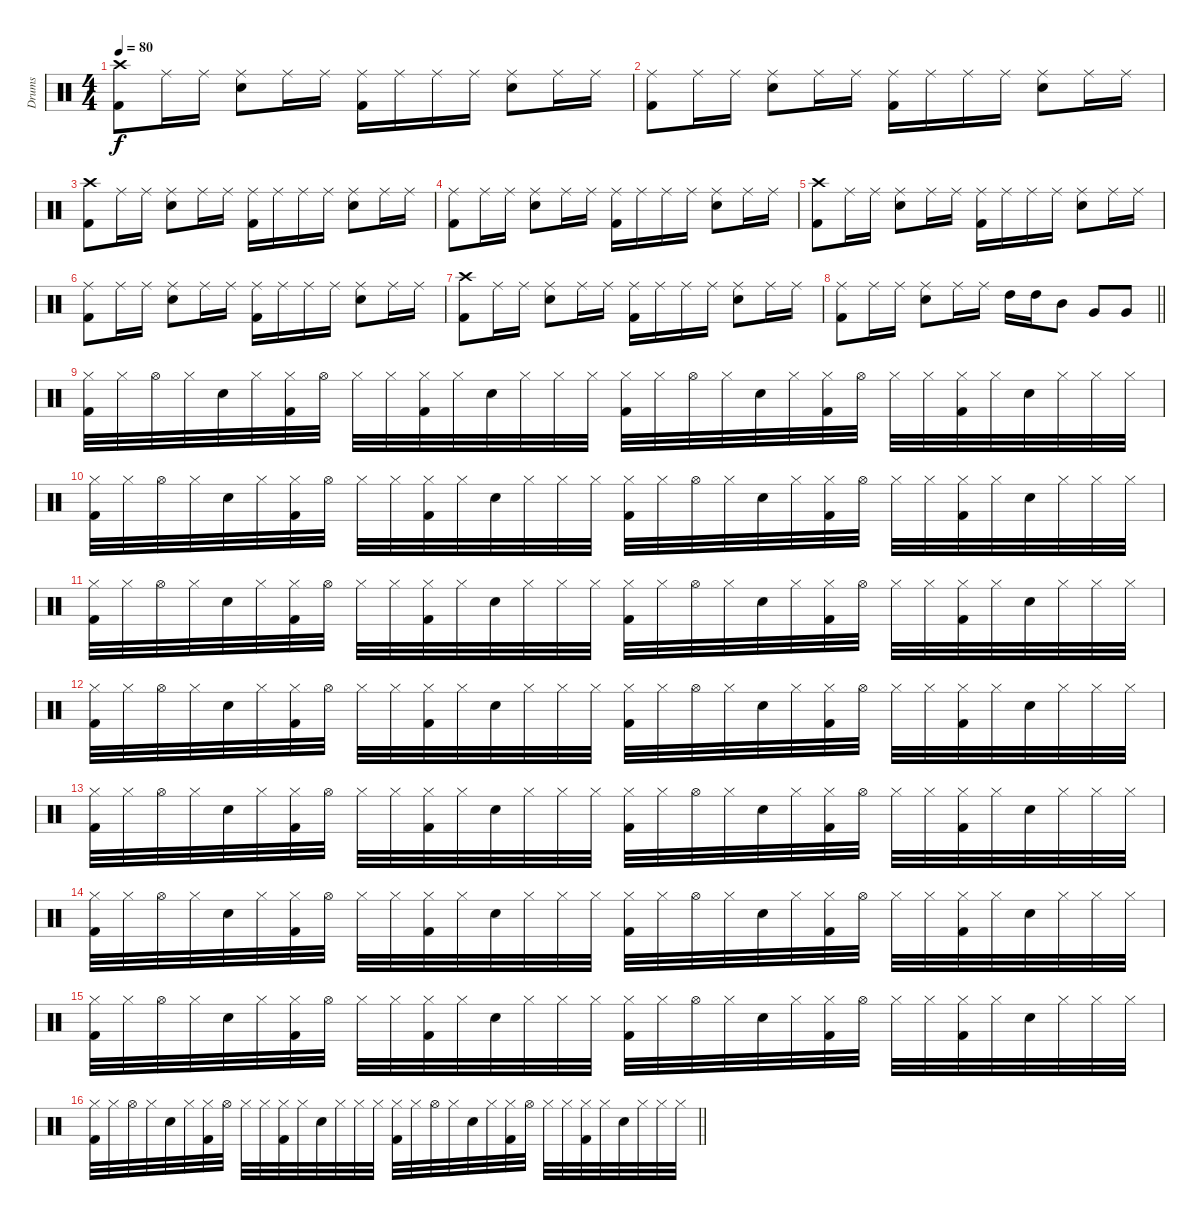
\track ("Drums" "Drums") {instrument percussion}
\staff {score}
\articulation defaults
\ts (4 4)
\section ("" "")
\tempo 80
\clef neutral
\ks c
("Kick (hit) 2" "Crash high (hit)").8{dy f} "Ride (middle)".16 "Ride (middle)".16 ("Electric Snare (hit)" "Ride (middle)").8 "Ride (middle)".16 "Ride (middle)".16 ("Kick (hit) 2" "Ride (middle)").16 "Ride (middle)".16 "Ride (middle)".16 "Ride (middle)".16 ("Electric Snare (hit)" "Ride (middle)").8 "Ride (middle)".16 "Ride (middle)".16 |
("Kick (hit) 2" "Ride (middle)").8 "Ride (middle)".16 "Ride (middle)".16 ("Electric Snare (hit)" "Ride (middle)").8 "Ride (middle)".16 "Ride (middle)".16 ("Kick (hit) 2" "Ride (middle)").16 "Ride (middle)".16 "Ride (middle)".16 "Ride (middle)".16 ("Electric Snare (hit)" "Ride (middle)").8 "Ride (middle)".16 "Ride (middle)".16 |
("Kick (hit) 2" "Crash high (hit)").8 "Ride (middle)".16 "Ride (middle)".16 ("Electric Snare (hit)" "Ride (middle)").8 "Ride (middle)".16 "Ride (middle)".16 ("Kick (hit) 2" "Ride (middle)").16 "Ride (middle)".16 "Ride (middle)".16 "Ride (middle)".16 ("Electric Snare (hit)" "Ride (middle)").8 "Ride (middle)".16 "Ride (middle)".16 |
("Kick (hit) 2" "Ride (middle)").8 "Ride (middle)".16 "Ride (middle)".16 ("Electric Snare (hit)" "Ride (middle)").8 "Ride (middle)".16 "Ride (middle)".16 ("Kick (hit) 2" "Ride (middle)").16 "Ride (middle)".16 "Ride (middle)".16 "Ride (middle)".16 ("Electric Snare (hit)" "Ride (middle)").8 "Ride (middle)".16 "Ride (middle)".16 |
("Kick (hit) 2" "Crash high (hit)").8 "Ride (middle)".16 "Ride (middle)".16 ("Electric Snare (hit)" "Ride (middle)").8 "Ride (middle)".16 "Ride (middle)".16 ("Kick (hit) 2" "Ride (middle)").16 "Ride (middle)".16 "Ride (middle)".16 "Ride (middle)".16 ("Electric Snare (hit)" "Ride (middle)").8 "Ride (middle)".16 "Ride (middle)".16 |
("Kick (hit) 2" "Ride (middle)").8 "Ride (middle)".16 "Ride (middle)".16 ("Electric Snare (hit)" "Ride (middle)").8 "Ride (middle)".16 "Ride (middle)".16 ("Kick (hit) 2" "Ride (middle)").16 "Ride (middle)".16 "Ride (middle)".16 "Ride (middle)".16 ("Electric Snare (hit)" "Ride (middle)").8 "Ride (middle)".16 "Ride (middle)".16 |
("Kick (hit) 2" "Crash high (hit)").8 "Ride (middle)".16 "Ride (middle)".16 ("Electric Snare (hit)" "Ride (middle)").8 "Ride (middle)".16 "Ride (middle)".16 ("Kick (hit) 2" "Ride (middle)").16 "Ride (middle)".16 "Ride (middle)".16 "Ride (middle)".16 ("Electric Snare (hit)" "Ride (middle)").8 "Ride (middle)".16 "Ride (middle)".16 |
\barLineRight lightlight
("Kick (hit) 2" "Ride (middle)").8 "Ride (middle)".16 "Ride (middle)".16 ("Electric Snare (hit)" "Ride (middle)").8 "Ride (middle)".16 "Ride (middle)".16 "High Tom (hit)".16 "High Tom (hit)".16 "Mid Tom (hit)".8 "Very Low Tom (hit)".8 "Very Low Tom (hit)".8 |
\section ("" "")
("Kick (hit) 2" "Hi-Hat (closed)").32 "Hi-Hat (closed)".32 "Hi-Hat (open)".32 "Hi-Hat (closed)".32 "Electric Snare (hit)".32 "Hi-Hat (closed)".32 ("Kick (hit) 2" "Hi-Hat (closed)").32 "Hi-Hat (open)".32 "Hi-Hat (closed)".32 "Hi-Hat (closed)".32 ("Kick (hit) 2" "Hi-Hat (closed)").32 "Hi-Hat (closed)".32 "Electric Snare (hit)".32 "Hi-Hat (closed)".32 "Hi-Hat (closed)".32 "Hi-Hat (closed)".32 ("Kick (hit) 2" "Hi-Hat (closed)").32 "Hi-Hat (closed)".32 "Hi-Hat (open)".32 "Hi-Hat (closed)".32 "Electric Snare (hit)".32 "Hi-Hat (closed)".32 ("Kick (hit) 2" "Hi-Hat (closed)").32 "Hi-Hat (open)".32 "Hi-Hat (closed)".32 "Hi-Hat (closed)".32 ("Kick (hit) 2" "Hi-Hat (closed)").32 "Hi-Hat (closed)".32 "Electric Snare (hit)".32 "Hi-Hat (closed)".32 "Hi-Hat (closed)".32 "Hi-Hat (closed)".32 |
("Kick (hit) 2" "Hi-Hat (closed)").32 "Hi-Hat (closed)".32 "Hi-Hat (open)".32 "Hi-Hat (closed)".32 "Electric Snare (hit)".32 "Hi-Hat (closed)".32 ("Kick (hit) 2" "Hi-Hat (closed)").32 "Hi-Hat (open)".32 "Hi-Hat (closed)".32 "Hi-Hat (closed)".32 ("Kick (hit) 2" "Hi-Hat (closed)").32 "Hi-Hat (closed)".32 "Electric Snare (hit)".32 "Hi-Hat (closed)".32 "Hi-Hat (closed)".32 "Hi-Hat (closed)".32 ("Kick (hit) 2" "Hi-Hat (closed)").32 "Hi-Hat (closed)".32 "Hi-Hat (open)".32 "Hi-Hat (closed)".32 "Electric Snare (hit)".32 "Hi-Hat (closed)".32 ("Kick (hit) 2" "Hi-Hat (closed)").32 "Hi-Hat (open)".32 "Hi-Hat (closed)".32 "Hi-Hat (closed)".32 ("Kick (hit) 2" "Hi-Hat (closed)").32 "Hi-Hat (closed)".32 "Electric Snare (hit)".32 "Hi-Hat (closed)".32 "Hi-Hat (closed)".32 "Hi-Hat (closed)".32 |
("Kick (hit) 2" "Hi-Hat (closed)").32 "Hi-Hat (closed)".32 "Hi-Hat (open)".32 "Hi-Hat (closed)".32 "Electric Snare (hit)".32 "Hi-Hat (closed)".32 ("Kick (hit) 2" "Hi-Hat (closed)").32 "Hi-Hat (open)".32 "Hi-Hat (closed)".32 "Hi-Hat (closed)".32 ("Kick (hit) 2" "Hi-Hat (closed)").32 "Hi-Hat (closed)".32 "Electric Snare (hit)".32 "Hi-Hat (closed)".32 "Hi-Hat (closed)".32 "Hi-Hat (closed)".32 ("Kick (hit) 2" "Hi-Hat (closed)").32 "Hi-Hat (closed)".32 "Hi-Hat (open)".32 "Hi-Hat (closed)".32 "Electric Snare (hit)".32 "Hi-Hat (closed)".32 ("Kick (hit) 2" "Hi-Hat (closed)").32 "Hi-Hat (open)".32 "Hi-Hat (closed)".32 "Hi-Hat (closed)".32 ("Kick (hit) 2" "Hi-Hat (closed)").32 "Hi-Hat (closed)".32 "Electric Snare (hit)".32 "Hi-Hat (closed)".32 "Hi-Hat (closed)".32 "Hi-Hat (closed)".32 |
("Kick (hit) 2" "Hi-Hat (closed)").32 "Hi-Hat (closed)".32 "Hi-Hat (open)".32 "Hi-Hat (closed)".32 "Electric Snare (hit)".32 "Hi-Hat (closed)".32 ("Kick (hit) 2" "Hi-Hat (closed)").32 "Hi-Hat (open)".32 "Hi-Hat (closed)".32 "Hi-Hat (closed)".32 ("Kick (hit) 2" "Hi-Hat (closed)").32 "Hi-Hat (closed)".32 "Electric Snare (hit)".32 "Hi-Hat (closed)".32 "Hi-Hat (closed)".32 "Hi-Hat (closed)".32 ("Kick (hit) 2" "Hi-Hat (closed)").32 "Hi-Hat (closed)".32 "Hi-Hat (open)".32 "Hi-Hat (closed)".32 "Electric Snare (hit)".32 "Hi-Hat (closed)".32 ("Kick (hit) 2" "Hi-Hat (closed)").32 "Hi-Hat (open)".32 "Hi-Hat (closed)".32 "Hi-Hat (closed)".32 ("Kick (hit) 2" "Hi-Hat (closed)").32 "Hi-Hat (closed)".32 "Electric Snare (hit)".32 "Hi-Hat (closed)".32 "Hi-Hat (closed)".32 "Hi-Hat (closed)".32 |
("Kick (hit) 2" "Hi-Hat (closed)").32 "Hi-Hat (closed)".32 "Hi-Hat (open)".32 "Hi-Hat (closed)".32 "Electric Snare (hit)".32 "Hi-Hat (closed)".32 ("Kick (hit) 2" "Hi-Hat (closed)").32 "Hi-Hat (open)".32 "Hi-Hat (closed)".32 "Hi-Hat (closed)".32 ("Kick (hit) 2" "Hi-Hat (closed)").32 "Hi-Hat (closed)".32 "Electric Snare (hit)".32 "Hi-Hat (closed)".32 "Hi-Hat (closed)".32 "Hi-Hat (closed)".32 ("Kick (hit) 2" "Hi-Hat (closed)").32 "Hi-Hat (closed)".32 "Hi-Hat (open)".32 "Hi-Hat (closed)".32 "Electric Snare (hit)".32 "Hi-Hat (closed)".32 ("Kick (hit) 2" "Hi-Hat (closed)").32 "Hi-Hat (open)".32 "Hi-Hat (closed)".32 "Hi-Hat (closed)".32 ("Kick (hit) 2" "Hi-Hat (closed)").32 "Hi-Hat (closed)".32 "Electric Snare (hit)".32 "Hi-Hat (closed)".32 "Hi-Hat (closed)".32 "Hi-Hat (closed)".32 |
("Kick (hit) 2" "Hi-Hat (closed)").32 "Hi-Hat (closed)".32 "Hi-Hat (open)".32 "Hi-Hat (closed)".32 "Electric Snare (hit)".32 "Hi-Hat (closed)".32 ("Kick (hit) 2" "Hi-Hat (closed)").32 "Hi-Hat (open)".32 "Hi-Hat (closed)".32 "Hi-Hat (closed)".32 ("Kick (hit) 2" "Hi-Hat (closed)").32 "Hi-Hat (closed)".32 "Electric Snare (hit)".32 "Hi-Hat (closed)".32 "Hi-Hat (closed)".32 "Hi-Hat (closed)".32 ("Kick (hit) 2" "Hi-Hat (closed)").32 "Hi-Hat (closed)".32 "Hi-Hat (open)".32 "Hi-Hat (closed)".32 "Electric Snare (hit)".32 "Hi-Hat (closed)".32 ("Kick (hit) 2" "Hi-Hat (closed)").32 "Hi-Hat (open)".32 "Hi-Hat (closed)".32 "Hi-Hat (closed)".32 ("Kick (hit) 2" "Hi-Hat (closed)").32 "Hi-Hat (closed)".32 "Electric Snare (hit)".32 "Hi-Hat (closed)".32 "Hi-Hat (closed)".32 "Hi-Hat (closed)".32 |
("Kick (hit) 2" "Hi-Hat (closed)").32 "Hi-Hat (closed)".32 "Hi-Hat (open)".32 "Hi-Hat (closed)".32 "Electric Snare (hit)".32 "Hi-Hat (closed)".32 ("Kick (hit) 2" "Hi-Hat (closed)").32 "Hi-Hat (open)".32 "Hi-Hat (closed)".32 "Hi-Hat (closed)".32 ("Kick (hit) 2" "Hi-Hat (closed)").32 "Hi-Hat (closed)".32 "Electric Snare (hit)".32 "Hi-Hat (closed)".32 "Hi-Hat (closed)".32 "Hi-Hat (closed)".32 ("Kick (hit) 2" "Hi-Hat (closed)").32 "Hi-Hat (closed)".32 "Hi-Hat (open)".32 "Hi-Hat (closed)".32 "Electric Snare (hit)".32 "Hi-Hat (closed)".32 ("Kick (hit) 2" "Hi-Hat (closed)").32 "Hi-Hat (open)".32 "Hi-Hat (closed)".32 "Hi-Hat (closed)".32 ("Kick (hit) 2" "Hi-Hat (closed)").32 "Hi-Hat (closed)".32 "Electric Snare (hit)".32 "Hi-Hat (closed)".32 "Hi-Hat (closed)".32 "Hi-Hat (closed)".32 |
\barLineRight lightlight
("Kick (hit) 2" "Hi-Hat (closed)").32 "Hi-Hat (closed)".32 "Hi-Hat (open)".32 "Hi-Hat (closed)".32 "Electric Snare (hit)".32 "Hi-Hat (closed)".32 ("Kick (hit) 2" "Hi-Hat (closed)").32 "Hi-Hat (open)".32 "Hi-Hat (closed)".32 "Hi-Hat (closed)".32 ("Kick (hit) 2" "Hi-Hat (closed)").32 "Hi-Hat (closed)".32 "Electric Snare (hit)".32 "Hi-Hat (closed)".32 "Hi-Hat (closed)".32 "Hi-Hat (closed)".32 ("Kick (hit) 2" "Hi-Hat (closed)").32 "Hi-Hat (closed)".32 "Hi-Hat (open)".32 "Hi-Hat (closed)".32 "Electric Snare (hit)".32 "Hi-Hat (closed)".32 ("Kick (hit) 2" "Hi-Hat (closed)").32 "Hi-Hat (open)".32 "Hi-Hat (closed)".32 "Hi-Hat (closed)".32 ("Kick (hit) 2" "Hi-Hat (closed)").32 "Hi-Hat (closed)".32 "Electric Snare (hit)".32 "Hi-Hat (closed)".32 "Hi-Hat (closed)".32 "Hi-Hat (closed)".32
